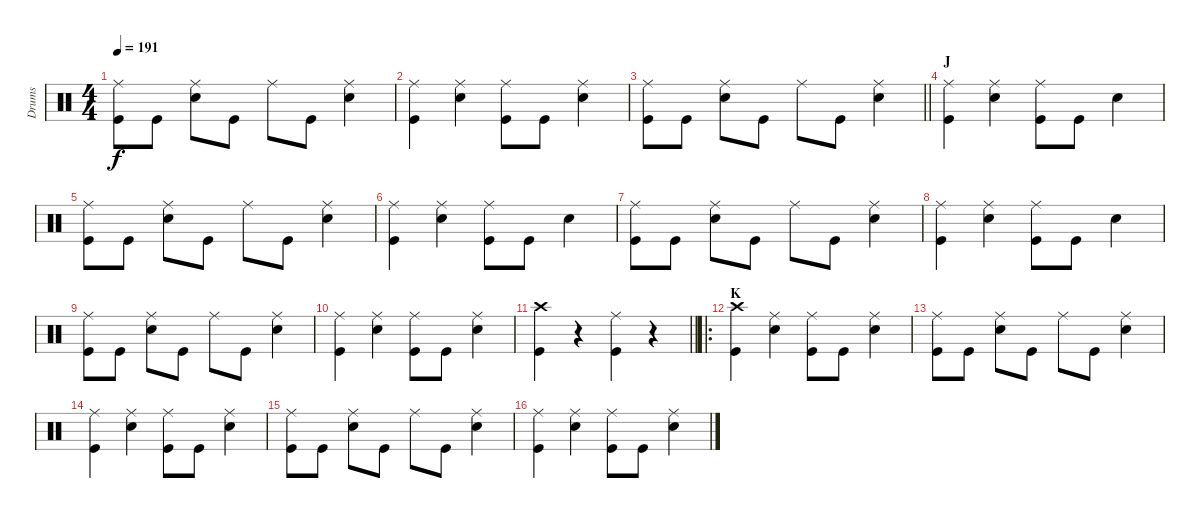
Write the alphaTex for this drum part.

\track ("Drums" "Drums") {instrument percussion}
\staff {score}
\articulation defaults
\ts (4 4)
\tempo 191
\clef neutral
\ks c
("Ride (middle)" "Kick (hit)").8{dy f} "Kick (hit)".8 ("Ride (middle)" "Electric Snare (hit)").8 "Kick (hit)".8 "Ride (middle)".8 "Kick (hit)".8 ("Ride (middle)" "Electric Snare (hit)").4 |
("Ride (middle)" "Kick (hit)").4 ("Ride (middle)" "Electric Snare (hit)").4 ("Ride (middle)" "Kick (hit)").8 "Kick (hit)".8 ("Ride (middle)" "Electric Snare (hit)").4 |
\barLineRight lightlight
("Ride (middle)" "Kick (hit)").8 "Kick (hit)".8 ("Ride (middle)" "Electric Snare (hit)").8 "Kick (hit)".8 "Ride (middle)".8 "Kick (hit)".8 ("Ride (middle)" "Electric Snare (hit)").4 |
\section ("" "J")
("Ride (middle)" "Kick (hit)").4 ("Ride (middle)" "Electric Snare (hit)").4 ("Ride (middle)" "Kick (hit)").8 "Kick (hit)".8 "Electric Snare (hit)".4 |
("Ride (middle)" "Kick (hit)").8 "Kick (hit)".8 ("Ride (middle)" "Electric Snare (hit)").8 "Kick (hit)".8 "Ride (middle)".8 "Kick (hit)".8 ("Ride (middle)" "Electric Snare (hit)").4 |
("Ride (middle)" "Kick (hit)").4 ("Ride (middle)" "Electric Snare (hit)").4 ("Ride (middle)" "Kick (hit)").8 "Kick (hit)".8 "Electric Snare (hit)".4 |
("Ride (middle)" "Kick (hit)").8 "Kick (hit)".8 ("Ride (middle)" "Electric Snare (hit)").8 "Kick (hit)".8 "Ride (middle)".8 "Kick (hit)".8 ("Ride (middle)" "Electric Snare (hit)").4 |
("Ride (middle)" "Kick (hit)").4 ("Ride (middle)" "Electric Snare (hit)").4 ("Ride (middle)" "Kick (hit)").8 "Kick (hit)".8 "Electric Snare (hit)".4 |
("Ride (middle)" "Kick (hit)").8 "Kick (hit)".8 ("Ride (middle)" "Electric Snare (hit)").8 "Kick (hit)".8 "Ride (middle)".8 "Kick (hit)".8 ("Ride (middle)" "Electric Snare (hit)").4 |
("Ride (middle)" "Kick (hit)").4 ("Ride (middle)" "Electric Snare (hit)").4 ("Ride (middle)" "Kick (hit)").8 "Kick (hit)".8 ("Ride (middle)" "Electric Snare (hit)").4 |
\barLineRight lightlight
("Crash high (hit)" "Kick (hit)").4 r.4 ("Ride (middle)" "Kick (hit)").4 r.4 |
\ro
\section ("" "K")
("Crash high (hit)" "Kick (hit)").4 ("Ride (middle)" "Electric Snare (hit)").4 ("Ride (middle)" "Kick (hit)").8 "Kick (hit)".8 ("Ride (middle)" "Electric Snare (hit)").4 |
("Ride (middle)" "Kick (hit)").8 "Kick (hit)".8 ("Ride (middle)" "Electric Snare (hit)").8 "Kick (hit)".8 "Ride (middle)".8 "Kick (hit)".8 ("Ride (middle)" "Electric Snare (hit)").4 |
("Ride (middle)" "Kick (hit)").4 ("Ride (middle)" "Electric Snare (hit)").4 ("Ride (middle)" "Kick (hit)").8 "Kick (hit)".8 ("Ride (middle)" "Electric Snare (hit)").4 |
("Ride (middle)" "Kick (hit)").8 "Kick (hit)".8 ("Ride (middle)" "Electric Snare (hit)").8 "Kick (hit)".8 "Ride (middle)".8 "Kick (hit)".8 ("Ride (middle)" "Electric Snare (hit)").4 |
("Ride (middle)" "Kick (hit)").4 ("Ride (middle)" "Electric Snare (hit)").4 ("Ride (middle)" "Kick (hit)").8 "Kick (hit)".8 ("Ride (middle)" "Electric Snare (hit)").4
